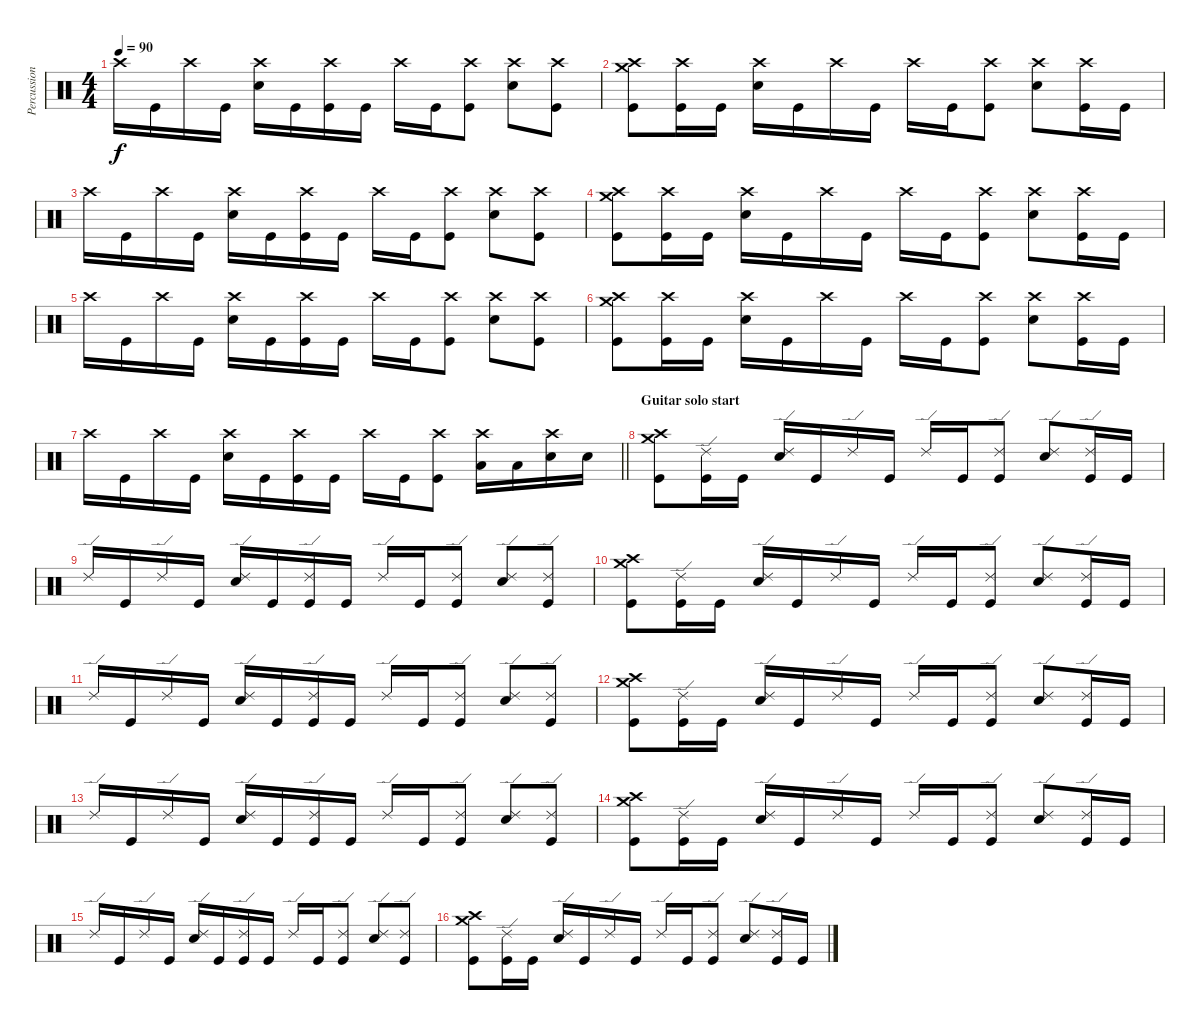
\track ("Percussion" "Percussion") {instrument percussion}
\staff {score}
\articulation defaults
\ts (4 4)
\tempo 90
\clef neutral
\ks c "Crash high (hit)".16{dy f} "Kick (hit)".16 "Crash high (hit)".16 "Kick (hit)".16
("Snare (hit) 2" "Crash high (hit)").16 "Kick (hit)".16 ("Kick (hit)" "Crash high (hit)").16 "Kick (hit)".16 "Crash high (hit)".16 "Kick (hit)".16 ("Kick (hit)" "Crash high (hit)").8 ("Snare (hit) 2" "Crash high (hit)").8 ("Kick (hit)" "Crash high (hit)").8 |
("Kick (hit)" "Crash high (hit)" "Crash medium (hit)").8 ("Kick (hit)" "Crash high (hit)").16 "Kick (hit)".16 ("Snare (hit) 2" "Crash high (hit)").16 "Kick (hit)".16 "Crash high (hit)".16 "Kick (hit)".16 "Crash high (hit)".16 "Kick (hit)".16 ("Kick (hit)" "Crash high (hit)").8 ("Snare (hit) 2" "Crash high (hit)").8 ("Kick (hit)" "Crash high (hit)").16 "Kick (hit)".16 |
"Crash high (hit)".16 "Kick (hit)".16 "Crash high (hit)".16 "Kick (hit)".16 ("Snare (hit) 2" "Crash high (hit)").16 "Kick (hit)".16 ("Kick (hit)" "Crash high (hit)").16 "Kick (hit)".16 "Crash high (hit)".16 "Kick (hit)".16 ("Kick (hit)" "Crash high (hit)").8 ("Snare (hit) 2" "Crash high (hit)").8 ("Kick (hit)" "Crash high (hit)").8 |
("Kick (hit)" "Crash high (hit)" "Crash medium (hit)").8 ("Kick (hit)" "Crash high (hit)").16 "Kick (hit)".16 ("Snare (hit) 2" "Crash high (hit)").16 "Kick (hit)".16 "Crash high (hit)".16 "Kick (hit)".16 "Crash high (hit)".16 "Kick (hit)".16 ("Kick (hit)" "Crash high (hit)").8 ("Snare (hit) 2" "Crash high (hit)").8 ("Kick (hit)" "Crash high (hit)").16 "Kick (hit)".16 |
"Crash high (hit)".16 "Kick (hit)".16 "Crash high (hit)".16 "Kick (hit)".16 ("Snare (hit) 2" "Crash high (hit)").16 "Kick (hit)".16 ("Kick (hit)" "Crash high (hit)").16 "Kick (hit)".16 "Crash high (hit)".16 "Kick (hit)".16 ("Kick (hit)" "Crash high (hit)").8 ("Snare (hit) 2" "Crash high (hit)").8 ("Kick (hit)" "Crash high (hit)").8 |
("Kick (hit)" "Crash high (hit)" "Crash medium (hit)").8 ("Kick (hit)" "Crash high (hit)").16 "Kick (hit)".16 ("Snare (hit) 2" "Crash high (hit)").16 "Kick (hit)".16 "Crash high (hit)".16 "Kick (hit)".16 "Crash high (hit)".16 "Kick (hit)".16 ("Kick (hit)" "Crash high (hit)").8 ("Snare (hit) 2" "Crash high (hit)").8 ("Kick (hit)" "Crash high (hit)").16 "Kick (hit)".16 |
\barLineRight lightlight "Crash high (hit)".16 "Kick (hit)".16 "Crash high (hit)".16 "Kick (hit)".16
("Snare (hit) 2" "Crash high (hit)").16 "Kick (hit)".16 ("Kick (hit)" "Crash high (hit)").16 "Kick (hit)".16 "Crash high (hit)".16 "Kick (hit)".16 ("Kick (hit)" "Crash high (hit)").8 ("Low Floor Tom (hit)" "Crash high (hit)").16 "Low Floor Tom (hit)".16 ("Snare (hit) 2" "Crash high (hit)").16 "Snare (hit) 2".16 |
\section ("" "Guitar solo start")
("Kick (hit)" "Crash high (hit)" "Crash medium (hit)").8 ("Kick (hit)" "Ride (edge) 2").16 "Kick (hit)".16 ("Snare (hit) 2" "Ride (edge) 2").16 "Kick (hit)".16 "Ride (edge) 2".16 "Kick (hit)".16 "Ride (edge) 2".16 "Kick (hit)".16 ("Kick (hit)" "Ride (edge) 2").8 ("Snare (hit) 2" "Ride (edge) 2").8 ("Kick (hit)" "Ride (edge) 2").16 "Kick (hit)".16 |
"Ride (edge) 2".16 "Kick (hit)".16 "Ride (edge) 2".16 "Kick (hit)".16 ("Snare (hit) 2" "Ride (edge) 2").16 "Kick (hit)".16 ("Kick (hit)" "Ride (edge) 2").16 "Kick (hit)".16 "Ride (edge) 2".16 "Kick (hit)".16 ("Kick (hit)" "Ride (edge) 2").8 ("Snare (hit) 2" "Ride (edge) 2").8 ("Kick (hit)" "Ride (edge) 2").8 |
("Kick (hit)" "Crash high (hit)" "Crash medium (hit)").8 ("Kick (hit)" "Ride (edge) 2").16 "Kick (hit)".16 ("Snare (hit) 2" "Ride (edge) 2").16 "Kick (hit)".16 "Ride (edge) 2".16 "Kick (hit)".16 "Ride (edge) 2".16 "Kick (hit)".16 ("Kick (hit)" "Ride (edge) 2").8 ("Snare (hit) 2" "Ride (edge) 2").8 ("Kick (hit)" "Ride (edge) 2").16 "Kick (hit)".16 |
"Ride (edge) 2".16 "Kick (hit)".16 "Ride (edge) 2".16 "Kick (hit)".16 ("Snare (hit) 2" "Ride (edge) 2").16 "Kick (hit)".16 ("Kick (hit)" "Ride (edge) 2").16 "Kick (hit)".16 "Ride (edge) 2".16 "Kick (hit)".16 ("Kick (hit)" "Ride (edge) 2").8 ("Snare (hit) 2" "Ride (edge) 2").8 ("Kick (hit)" "Ride (edge) 2").8 |
("Kick (hit)" "Crash high (hit)" "Crash medium (hit)").8 ("Kick (hit)" "Ride (edge) 2").16 "Kick (hit)".16 ("Snare (hit) 2" "Ride (edge) 2").16 "Kick (hit)".16 "Ride (edge) 2".16 "Kick (hit)".16 "Ride (edge) 2".16 "Kick (hit)".16 ("Kick (hit)" "Ride (edge) 2").8 ("Snare (hit) 2" "Ride (edge) 2").8 ("Kick (hit)" "Ride (edge) 2").16 "Kick (hit)".16 |
"Ride (edge) 2".16 "Kick (hit)".16 "Ride (edge) 2".16 "Kick (hit)".16 ("Snare (hit) 2" "Ride (edge) 2").16 "Kick (hit)".16 ("Kick (hit)" "Ride (edge) 2").16 "Kick (hit)".16 "Ride (edge) 2".16 "Kick (hit)".16 ("Kick (hit)" "Ride (edge) 2").8 ("Snare (hit) 2" "Ride (edge) 2").8 ("Kick (hit)" "Ride (edge) 2").8 |
("Kick (hit)" "Crash high (hit)" "Crash medium (hit)").8 ("Kick (hit)" "Ride (edge) 2").16 "Kick (hit)".16 ("Snare (hit) 2" "Ride (edge) 2").16 "Kick (hit)".16 "Ride (edge) 2".16 "Kick (hit)".16 "Ride (edge) 2".16 "Kick (hit)".16 ("Kick (hit)" "Ride (edge) 2").8 ("Snare (hit) 2" "Ride (edge) 2").8 ("Kick (hit)" "Ride (edge) 2").16 "Kick (hit)".16 |
"Ride (edge) 2".16 "Kick (hit)".16 "Ride (edge) 2".16 "Kick (hit)".16 ("Snare (hit) 2" "Ride (edge) 2").16 "Kick (hit)".16 ("Kick (hit)" "Ride (edge) 2").16 "Kick (hit)".16 "Ride (edge) 2".16 "Kick (hit)".16 ("Kick (hit)" "Ride (edge) 2").8 ("Snare (hit) 2" "Ride (edge) 2").8 ("Kick (hit)" "Ride (edge) 2").8 |
("Kick (hit)" "Crash high (hit)" "Crash medium (hit)").8 ("Kick (hit)" "Ride (edge) 2").16 "Kick (hit)".16 ("Snare (hit) 2" "Ride (edge) 2").16 "Kick (hit)".16 "Ride (edge) 2".16 "Kick (hit)".16 "Ride (edge) 2".16 "Kick (hit)".16 ("Kick (hit)" "Ride (edge) 2").8 ("Snare (hit) 2" "Ride (edge) 2").8 ("Kick (hit)" "Ride (edge) 2").16 "Kick (hit)".16
